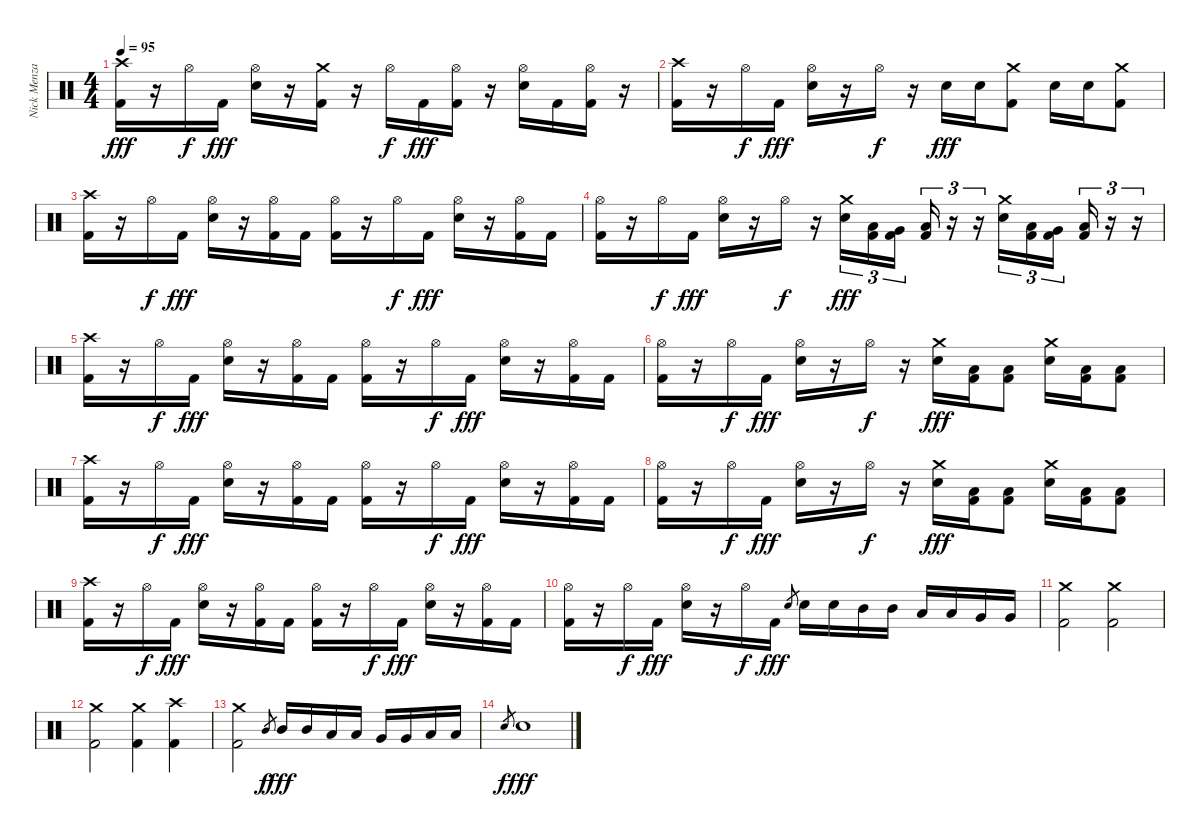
\track ("Nick Menza" "Nick Menza") {instrument percussion}
\staff {score}
\articulation defaults
\ts (4 4)
\tempo 95
\clef neutral
\ks c
("Kick (hit) 2" "Crash high (hit)").16{dy fff} r.16 "Hi-Hat (open)".16{dy f} "Kick (hit) 2".16{dy fff} ("Electric Snare (hit)" "Hi-Hat (open)").16 r.16 ("Kick (hit) 2" "Crash medium (hit)").16 r.16 "Hi-Hat (open)".16{dy f} "Kick (hit) 2".16{dy fff} ("Kick (hit) 2" "Hi-Hat (open)").16 r.16 ("Electric Snare (hit)" "Hi-Hat (open)").16 "Kick (hit) 2".16 ("Kick (hit) 2" "Hi-Hat (open)").16 r.16 |
("Kick (hit) 2" "Crash high (hit)").16 r.16 "Hi-Hat (open)".16{dy f} "Kick (hit) 2".16{dy fff} ("Electric Snare (hit)" "Hi-Hat (open)").16 r.16 "Hi-Hat (open)".16{dy f} r.16 "Electric Snare (hit)".16{dy fff} "Electric Snare (hit)".16 ("Kick (hit) 2" "Crash medium (hit)").8 "Electric Snare (hit)".16 "Electric Snare (hit)".16 ("Kick (hit) 2" "Crash medium (hit)").8 |
("Kick (hit) 2" "Crash high (hit)").16 r.16 "Hi-Hat (open)".16{dy f} "Kick (hit) 2".16{dy fff} ("Electric Snare (hit)" "Hi-Hat (open)").16 r.16 ("Kick (hit) 2" "Hi-Hat (open)").16 "Kick (hit) 2".16 ("Kick (hit) 2" "Hi-Hat (open)").16 r.16 "Hi-Hat (open)".16{dy f} "Kick (hit) 2".16{dy fff} ("Electric Snare (hit)" "Hi-Hat (open)").16 r.16 ("Kick (hit) 2" "Hi-Hat (open)").16 "Kick (hit) 2".16 |
("Kick (hit) 2" "Hi-Hat (open)").16 r.16 "Hi-Hat (open)".16{dy f} "Kick (hit) 2".16{dy fff} ("Electric Snare (hit)" "Hi-Hat (open)").16 r.16 "Hi-Hat (open)".16{dy f} r.16 ("Crash medium (hit)" "Electric Snare (hit)").16{tu (3 2) dy fff} ("Kick (hit) 2" "Low Tom (hit)").16{tu (3 2)} ("Kick (hit) 2" "Very Low Tom (hit)").16{tu (3 2)} ("Kick (hit) 2" "Low Floor Tom (hit)").16{tu (3 2)} r.16{tu (3 2)} r.16{tu (3 2)} ("Crash medium (hit)" "Electric Snare (hit)").16{tu (3 2)} ("Kick (hit) 2" "Low Tom (hit)").16{tu (3 2)} ("Kick (hit) 2" "Very Low Tom (hit)").16{tu (3 2)} ("Kick (hit) 2" "Low Floor Tom (hit)").16{tu (3 2)} r.16{tu (3 2)} r.16{tu (3 2)} |
("Kick (hit) 2" "Crash high (hit)").16 r.16 "Hi-Hat (open)".16{dy f} "Kick (hit) 2".16{dy fff} ("Electric Snare (hit)" "Hi-Hat (open)").16 r.16 ("Kick (hit) 2" "Hi-Hat (open)").16 "Kick (hit) 2".16 ("Kick (hit) 2" "Hi-Hat (open)").16 r.16 "Hi-Hat (open)".16{dy f} "Kick (hit) 2".16{dy fff} ("Electric Snare (hit)" "Hi-Hat (open)").16 r.16 ("Kick (hit) 2" "Hi-Hat (open)").16 "Kick (hit) 2".16 |
("Kick (hit) 2" "Hi-Hat (open)").16 r.16 "Hi-Hat (open)".16{dy f} "Kick (hit) 2".16{dy fff} ("Electric Snare (hit)" "Hi-Hat (open)").16 r.16 "Hi-Hat (open)".16{dy f} r.16 ("Crash medium (hit)" "Electric Snare (hit)").16{dy fff} ("Kick (hit) 2" "Low Floor Tom (hit)").16 ("Kick (hit) 2" "Low Floor Tom (hit)").8 ("Crash medium (hit)" "Electric Snare (hit)").16 ("Kick (hit) 2" "Low Floor Tom (hit)").16 ("Kick (hit) 2" "Low Floor Tom (hit)").8 |
("Kick (hit) 2" "Crash high (hit)").16 r.16 "Hi-Hat (open)".16{dy f} "Kick (hit) 2".16{dy fff} ("Electric Snare (hit)" "Hi-Hat (open)").16 r.16 ("Kick (hit) 2" "Hi-Hat (open)").16 "Kick (hit) 2".16 ("Kick (hit) 2" "Hi-Hat (open)").16 r.16 "Hi-Hat (open)".16{dy f} "Kick (hit) 2".16{dy fff} ("Electric Snare (hit)" "Hi-Hat (open)").16 r.16 ("Kick (hit) 2" "Hi-Hat (open)").16 "Kick (hit) 2".16 |
("Kick (hit) 2" "Hi-Hat (open)").16 r.16 "Hi-Hat (open)".16{dy f} "Kick (hit) 2".16{dy fff} ("Electric Snare (hit)" "Hi-Hat (open)").16 r.16 "Hi-Hat (open)".16{dy f} r.16 ("Crash medium (hit)" "Electric Snare (hit)").16{dy fff} ("Kick (hit) 2" "Low Floor Tom (hit)").16 ("Kick (hit) 2" "Low Floor Tom (hit)").8 ("Crash medium (hit)" "Electric Snare (hit)").16 ("Kick (hit) 2" "Low Floor Tom (hit)").16 ("Kick (hit) 2" "Low Floor Tom (hit)").8 |
("Kick (hit) 2" "Crash high (hit)").16 r.16 "Hi-Hat (open)".16{dy f} "Kick (hit) 2".16{dy fff} ("Electric Snare (hit)" "Hi-Hat (open)").16 r.16 ("Kick (hit) 2" "Hi-Hat (open)").16 "Kick (hit) 2".16 ("Kick (hit) 2" "Hi-Hat (open)").16 r.16 "Hi-Hat (open)".16{dy f} "Kick (hit) 2".16{dy fff} ("Electric Snare (hit)" "Hi-Hat (open)").16 r.16 ("Kick (hit) 2" "Hi-Hat (open)").16 "Kick (hit) 2".16 |
("Kick (hit) 2" "Hi-Hat (open)").16 r.16 "Hi-Hat (open)".16{dy f} "Kick (hit) 2".16{dy fff} ("Electric Snare (hit)" "Hi-Hat (open)").16 r.16 "Hi-Hat (open)".16{dy f} "Kick (hit) 2".16{dy fff} "Electric Snare (hit)".8{gr} "Electric Snare (hit)".16 "Electric Snare (hit)".16 "Mid Tom (hit)".16 "Mid Tom (hit)".16 "Low Tom (hit)".16 "Low Tom (hit)".16 "Very Low Tom (hit)".16 "Very Low Tom (hit)".16 |
("Kick (hit) 2" "Crash medium (hit)").2 ("Kick (hit) 2" "Crash medium (hit)").2 |
("Kick (hit) 2" "Crash medium (hit)").2 ("Kick (hit) 2" "Crash medium (hit)").4 ("Kick (hit) 2" "Crash high (hit)").4 |
("Kick (hit) 2" "Crash medium (hit)").2 "Mid Tom (hit)".8{gr dy f} "Mid Tom (hit)".16{dy fff} "Mid Tom (hit)".16 "Low Tom (hit)".16 "Low Tom (hit)".16 "Very Low Tom (hit)".16 "Very Low Tom (hit)".16 "Low Floor Tom (hit)".16 "Low Floor Tom (hit)".16 |
"Electric Snare (hit)".8{gr dy f} "Electric Snare (hit)".1{dy fff volume 16}
